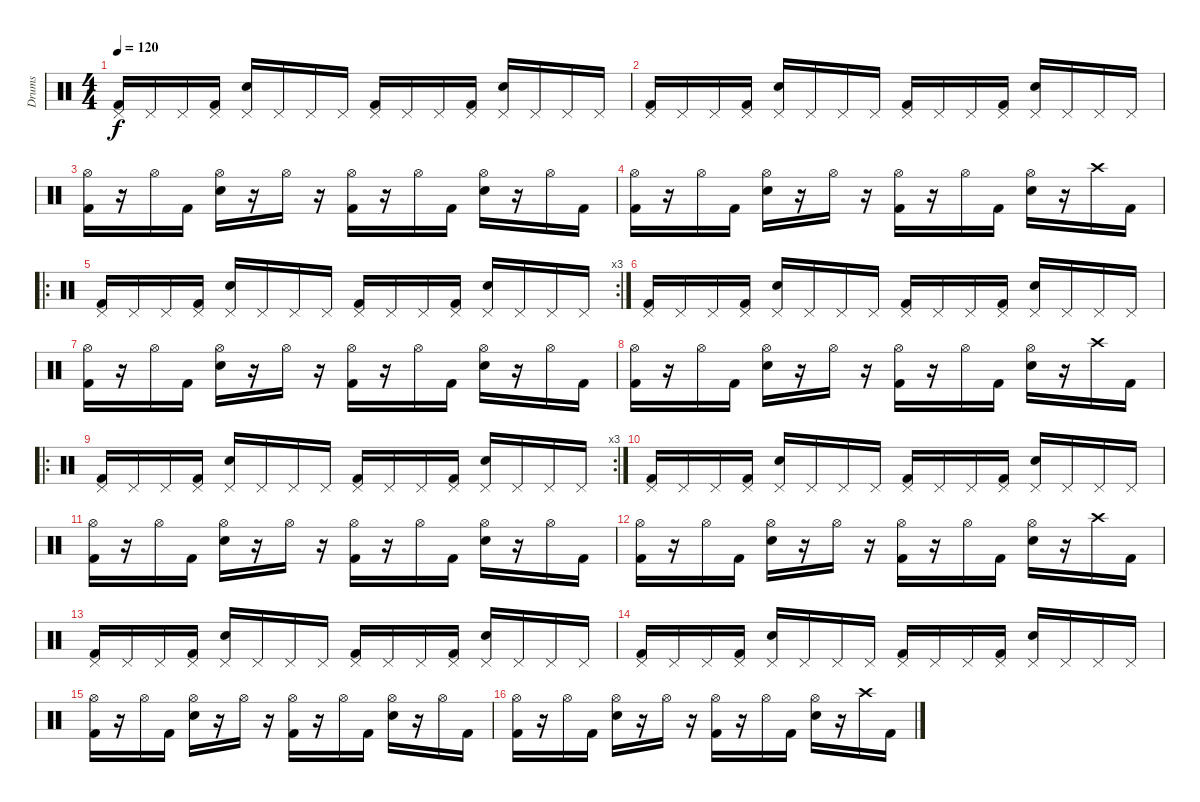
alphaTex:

\track ("Drums" "Drums") {instrument percussion}
\staff {score}
\articulation defaults
\ts (4 4)
\tempo 120
\clef neutral
\ks c
("Pedal Hi-Hat (hit)" "Kick (hit) 2").16{dy f} "Pedal Hi-Hat (hit)".16 "Pedal Hi-Hat (hit)".16 ("Pedal Hi-Hat (hit)" "Kick (hit) 2").16 ("Pedal Hi-Hat (hit)" "Electric Snare (hit)").16 "Pedal Hi-Hat (hit)".16 "Pedal Hi-Hat (hit)".16 "Pedal Hi-Hat (hit)".16 ("Pedal Hi-Hat (hit)" "Kick (hit) 2").16 "Pedal Hi-Hat (hit)".16 "Pedal Hi-Hat (hit)".16 ("Pedal Hi-Hat (hit)" "Kick (hit) 2").16 ("Pedal Hi-Hat (hit)" "Electric Snare (hit)").16 "Pedal Hi-Hat (hit)".16 "Pedal Hi-Hat (hit)".16 "Pedal Hi-Hat (hit)".16 |
("Pedal Hi-Hat (hit)" "Kick (hit) 2").16 "Pedal Hi-Hat (hit)".16 "Pedal Hi-Hat (hit)".16 ("Pedal Hi-Hat (hit)" "Kick (hit) 2").16 ("Pedal Hi-Hat (hit)" "Electric Snare (hit)").16 "Pedal Hi-Hat (hit)".16 "Pedal Hi-Hat (hit)".16 "Pedal Hi-Hat (hit)".16 ("Pedal Hi-Hat (hit)" "Kick (hit) 2").16 "Pedal Hi-Hat (hit)".16 "Pedal Hi-Hat (hit)".16 ("Pedal Hi-Hat (hit)" "Kick (hit) 2").16 ("Pedal Hi-Hat (hit)" "Electric Snare (hit)").16 "Pedal Hi-Hat (hit)".16 "Pedal Hi-Hat (hit)".16 "Pedal Hi-Hat (hit)".16 |
("Hi-Hat (open)" "Kick (hit) 2").16 r.16 "Hi-Hat (open)".16 "Kick (hit) 2".16 ("Hi-Hat (open)" "Electric Snare (hit)").16 r.16 "Hi-Hat (open)".16 r.16 ("Hi-Hat (open)" "Kick (hit) 2").16 r.16 "Hi-Hat (open)".16 "Kick (hit) 2".16 ("Hi-Hat (open)" "Electric Snare (hit)").16 r.16 "Hi-Hat (open)".16 "Kick (hit) 2".16 |
("Hi-Hat (open)" "Kick (hit) 2").16 r.16 "Hi-Hat (open)".16 "Kick (hit) 2".16 ("Hi-Hat (open)" "Electric Snare (hit)").16 r.16 "Hi-Hat (open)".16 r.16 ("Hi-Hat (open)" "Kick (hit) 2").16 r.16 "Hi-Hat (open)".16 "Kick (hit) 2".16 ("Hi-Hat (open)" "Electric Snare (hit)").16 r.16 "Crash high (hit)".16 "Kick (hit) 2".16 |
\ro
\rc 3
("Pedal Hi-Hat (hit)" "Kick (hit) 2").16 "Pedal Hi-Hat (hit)".16 "Pedal Hi-Hat (hit)".16 ("Pedal Hi-Hat (hit)" "Kick (hit) 2").16 ("Pedal Hi-Hat (hit)" "Electric Snare (hit)").16 "Pedal Hi-Hat (hit)".16 "Pedal Hi-Hat (hit)".16 "Pedal Hi-Hat (hit)".16 ("Pedal Hi-Hat (hit)" "Kick (hit) 2").16 "Pedal Hi-Hat (hit)".16 "Pedal Hi-Hat (hit)".16 ("Pedal Hi-Hat (hit)" "Kick (hit) 2").16 ("Pedal Hi-Hat (hit)" "Electric Snare (hit)").16 "Pedal Hi-Hat (hit)".16 "Pedal Hi-Hat (hit)".16 "Pedal Hi-Hat (hit)".16 |
("Pedal Hi-Hat (hit)" "Kick (hit) 2").16 "Pedal Hi-Hat (hit)".16 "Pedal Hi-Hat (hit)".16 ("Pedal Hi-Hat (hit)" "Kick (hit) 2").16 ("Pedal Hi-Hat (hit)" "Electric Snare (hit)").16 "Pedal Hi-Hat (hit)".16 "Pedal Hi-Hat (hit)".16 "Pedal Hi-Hat (hit)".16 ("Pedal Hi-Hat (hit)" "Kick (hit) 2").16 "Pedal Hi-Hat (hit)".16 "Pedal Hi-Hat (hit)".16 ("Pedal Hi-Hat (hit)" "Kick (hit) 2").16 ("Pedal Hi-Hat (hit)" "Electric Snare (hit)").16 "Pedal Hi-Hat (hit)".16 "Pedal Hi-Hat (hit)".16 "Pedal Hi-Hat (hit)".16 |
("Hi-Hat (open)" "Kick (hit) 2").16 r.16 "Hi-Hat (open)".16 "Kick (hit) 2".16 ("Hi-Hat (open)" "Electric Snare (hit)").16 r.16 "Hi-Hat (open)".16 r.16 ("Hi-Hat (open)" "Kick (hit) 2").16 r.16 "Hi-Hat (open)".16 "Kick (hit) 2".16 ("Hi-Hat (open)" "Electric Snare (hit)").16 r.16 "Hi-Hat (open)".16 "Kick (hit) 2".16 |
("Hi-Hat (open)" "Kick (hit) 2").16 r.16 "Hi-Hat (open)".16 "Kick (hit) 2".16 ("Hi-Hat (open)" "Electric Snare (hit)").16 r.16 "Hi-Hat (open)".16 r.16 ("Hi-Hat (open)" "Kick (hit) 2").16 r.16 "Hi-Hat (open)".16 "Kick (hit) 2".16 ("Hi-Hat (open)" "Electric Snare (hit)").16 r.16 "Crash high (hit)".16 "Kick (hit) 2".16 |
\ro
\rc 3
("Pedal Hi-Hat (hit)" "Kick (hit) 2").16 "Pedal Hi-Hat (hit)".16 "Pedal Hi-Hat (hit)".16 ("Pedal Hi-Hat (hit)" "Kick (hit) 2").16 ("Pedal Hi-Hat (hit)" "Electric Snare (hit)").16 "Pedal Hi-Hat (hit)".16 "Pedal Hi-Hat (hit)".16 "Pedal Hi-Hat (hit)".16 ("Pedal Hi-Hat (hit)" "Kick (hit) 2").16 "Pedal Hi-Hat (hit)".16 "Pedal Hi-Hat (hit)".16 ("Pedal Hi-Hat (hit)" "Kick (hit) 2").16 ("Pedal Hi-Hat (hit)" "Electric Snare (hit)").16 "Pedal Hi-Hat (hit)".16 "Pedal Hi-Hat (hit)".16 "Pedal Hi-Hat (hit)".16 |
("Pedal Hi-Hat (hit)" "Kick (hit) 2").16 "Pedal Hi-Hat (hit)".16 "Pedal Hi-Hat (hit)".16 ("Pedal Hi-Hat (hit)" "Kick (hit) 2").16 ("Pedal Hi-Hat (hit)" "Electric Snare (hit)").16 "Pedal Hi-Hat (hit)".16 "Pedal Hi-Hat (hit)".16 "Pedal Hi-Hat (hit)".16 ("Pedal Hi-Hat (hit)" "Kick (hit) 2").16 "Pedal Hi-Hat (hit)".16 "Pedal Hi-Hat (hit)".16 ("Pedal Hi-Hat (hit)" "Kick (hit) 2").16 ("Pedal Hi-Hat (hit)" "Electric Snare (hit)").16 "Pedal Hi-Hat (hit)".16 "Pedal Hi-Hat (hit)".16 "Pedal Hi-Hat (hit)".16 |
("Hi-Hat (open)" "Kick (hit) 2").16 r.16 "Hi-Hat (open)".16 "Kick (hit) 2".16 ("Hi-Hat (open)" "Electric Snare (hit)").16 r.16 "Hi-Hat (open)".16 r.16 ("Hi-Hat (open)" "Kick (hit) 2").16 r.16 "Hi-Hat (open)".16 "Kick (hit) 2".16 ("Hi-Hat (open)" "Electric Snare (hit)").16 r.16 "Hi-Hat (open)".16 "Kick (hit) 2".16 |
("Hi-Hat (open)" "Kick (hit) 2").16 r.16 "Hi-Hat (open)".16 "Kick (hit) 2".16 ("Hi-Hat (open)" "Electric Snare (hit)").16 r.16 "Hi-Hat (open)".16 r.16 ("Hi-Hat (open)" "Kick (hit) 2").16 r.16 "Hi-Hat (open)".16 "Kick (hit) 2".16 ("Hi-Hat (open)" "Electric Snare (hit)").16 r.16 "Crash high (hit)".16 "Kick (hit) 2".16 |
("Pedal Hi-Hat (hit)" "Kick (hit) 2").16 "Pedal Hi-Hat (hit)".16 "Pedal Hi-Hat (hit)".16 ("Pedal Hi-Hat (hit)" "Kick (hit) 2").16 ("Pedal Hi-Hat (hit)" "Electric Snare (hit)").16 "Pedal Hi-Hat (hit)".16 "Pedal Hi-Hat (hit)".16 "Pedal Hi-Hat (hit)".16 ("Pedal Hi-Hat (hit)" "Kick (hit) 2").16 "Pedal Hi-Hat (hit)".16 "Pedal Hi-Hat (hit)".16 ("Pedal Hi-Hat (hit)" "Kick (hit) 2").16 ("Pedal Hi-Hat (hit)" "Electric Snare (hit)").16 "Pedal Hi-Hat (hit)".16 "Pedal Hi-Hat (hit)".16 "Pedal Hi-Hat (hit)".16 |
("Pedal Hi-Hat (hit)" "Kick (hit) 2").16 "Pedal Hi-Hat (hit)".16 "Pedal Hi-Hat (hit)".16 ("Pedal Hi-Hat (hit)" "Kick (hit) 2").16 ("Pedal Hi-Hat (hit)" "Electric Snare (hit)").16 "Pedal Hi-Hat (hit)".16 "Pedal Hi-Hat (hit)".16 "Pedal Hi-Hat (hit)".16 ("Pedal Hi-Hat (hit)" "Kick (hit) 2").16 "Pedal Hi-Hat (hit)".16 "Pedal Hi-Hat (hit)".16 ("Pedal Hi-Hat (hit)" "Kick (hit) 2").16 ("Pedal Hi-Hat (hit)" "Electric Snare (hit)").16 "Pedal Hi-Hat (hit)".16 "Pedal Hi-Hat (hit)".16 "Pedal Hi-Hat (hit)".16 |
("Hi-Hat (open)" "Kick (hit) 2").16 r.16 "Hi-Hat (open)".16 "Kick (hit) 2".16 ("Hi-Hat (open)" "Electric Snare (hit)").16 r.16 "Hi-Hat (open)".16 r.16 ("Hi-Hat (open)" "Kick (hit) 2").16 r.16 "Hi-Hat (open)".16 "Kick (hit) 2".16 ("Hi-Hat (open)" "Electric Snare (hit)").16 r.16 "Hi-Hat (open)".16 "Kick (hit) 2".16 |
("Hi-Hat (open)" "Kick (hit) 2").16 r.16 "Hi-Hat (open)".16 "Kick (hit) 2".16 ("Hi-Hat (open)" "Electric Snare (hit)").16 r.16 "Hi-Hat (open)".16 r.16 ("Hi-Hat (open)" "Kick (hit) 2").16 r.16 "Hi-Hat (open)".16 "Kick (hit) 2".16 ("Hi-Hat (open)" "Electric Snare (hit)").16 r.16 "Crash high (hit)".16 "Kick (hit) 2".16
